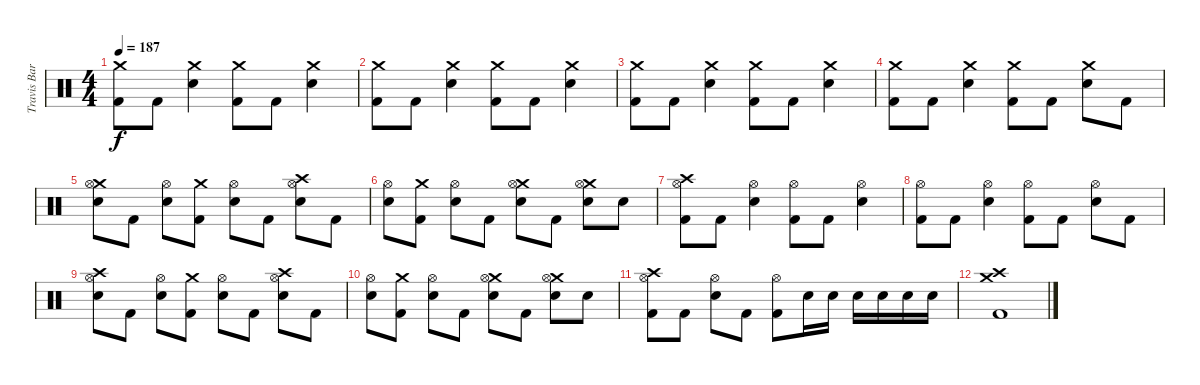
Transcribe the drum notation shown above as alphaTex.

\track ("Travis Barker Drums" "Travis Bar") {instrument percussion}
\staff {score}
\articulation defaults
\ts (4 4)
\tempo 187
\clef neutral
\ks c
("Crash medium (hit)" "Kick (hit) 2").8{dy f} "Kick (hit) 2".8 ("Crash medium (hit)" "Electric Snare (hit)").4 ("Crash medium (hit)" "Kick (hit) 2").8 "Kick (hit) 2".8 ("Crash medium (hit)" "Electric Snare (hit)").4 |
("Crash medium (hit)" "Kick (hit) 2").8 "Kick (hit) 2".8 ("Crash medium (hit)" "Electric Snare (hit)").4 ("Crash medium (hit)" "Kick (hit) 2").8 "Kick (hit) 2".8 ("Crash medium (hit)" "Electric Snare (hit)").4 |
("Crash medium (hit)" "Kick (hit) 2").8 "Kick (hit) 2".8 ("Crash medium (hit)" "Electric Snare (hit)").4 ("Crash medium (hit)" "Kick (hit) 2").8 "Kick (hit) 2".8 ("Crash medium (hit)" "Electric Snare (hit)").4 |
("Crash medium (hit)" "Kick (hit) 2").8 "Kick (hit) 2".8 ("Crash medium (hit)" "Electric Snare (hit)").4 ("Crash medium (hit)" "Kick (hit) 2").8 "Kick (hit) 2".8 ("Crash medium (hit)" "Electric Snare (hit)").8 "Kick (hit) 2".8 |
("Crash medium (hit)" "Hi-Hat (open)" "Electric Snare (hit)").8 "Kick (hit) 2".8 ("Hi-Hat (open)" "Electric Snare (hit)").8 ("Crash medium (hit)" "Kick (hit) 2").8 ("Hi-Hat (open)" "Electric Snare (hit)").8 "Kick (hit) 2".8 ("Crash high (hit)" "Hi-Hat (open)" "Electric Snare (hit)").8 "Kick (hit) 2".8 |
("Hi-Hat (open)" "Electric Snare (hit)").8 ("Crash medium (hit)" "Kick (hit) 2").8 ("Hi-Hat (open)" "Electric Snare (hit)").8 "Kick (hit) 2".8 ("Crash medium (hit)" "Hi-Hat (open)" "Electric Snare (hit)").8 "Kick (hit) 2".8 ("Crash medium (hit)" "Hi-Hat (open)" "Electric Snare (hit)").8 "Electric Snare (hit)".8 |
("Crash high (hit)" "Hi-Hat (open)" "Kick (hit) 2").8 "Kick (hit) 2".8 ("Hi-Hat (open)" "Electric Snare (hit)").4 ("Hi-Hat (open)" "Kick (hit) 2").8 "Kick (hit) 2".8 ("Hi-Hat (open)" "Electric Snare (hit)").4 |
("Hi-Hat (open)" "Kick (hit) 2").8 "Kick (hit) 2".8 ("Hi-Hat (open)" "Electric Snare (hit)").4 ("Hi-Hat (open)" "Kick (hit) 2").8 "Kick (hit) 2".8 ("Hi-Hat (open)" "Electric Snare (hit)").8 "Kick (hit) 2".8 |
("Crash high (hit)" "Hi-Hat (open)" "Electric Snare (hit)").8 "Kick (hit) 2".8 ("Hi-Hat (open)" "Electric Snare (hit)").8 ("Crash medium (hit)" "Kick (hit) 2").8 ("Hi-Hat (open)" "Electric Snare (hit)").8 "Kick (hit) 2".8 ("Crash high (hit)" "Hi-Hat (open)" "Electric Snare (hit)").8 "Kick (hit) 2".8 |
("Hi-Hat (open)" "Electric Snare (hit)").8 ("Crash medium (hit)" "Kick (hit) 2").8 ("Hi-Hat (open)" "Electric Snare (hit)").8 "Kick (hit) 2".8 ("Crash medium (hit)" "Hi-Hat (open)" "Electric Snare (hit)").8 "Kick (hit) 2".8 ("Crash medium (hit)" "Hi-Hat (open)" "Electric Snare (hit)").8 "Electric Snare (hit)".8 |
("Crash high (hit)" "Hi-Hat (open)" "Kick (hit) 2").8 "Kick (hit) 2".8 ("Hi-Hat (open)" "Electric Snare (hit)").8 "Kick (hit) 2".8 ("Hi-Hat (open)" "Kick (hit) 2").8 "Electric Snare (hit)".16 "Electric Snare (hit)".16 "Electric Snare (hit)".16 "Electric Snare (hit)".16 "Electric Snare (hit)".16 "Electric Snare (hit)".16 |
("Crash high (hit)" "Crash medium (hit)" "Kick (hit) 2").1
